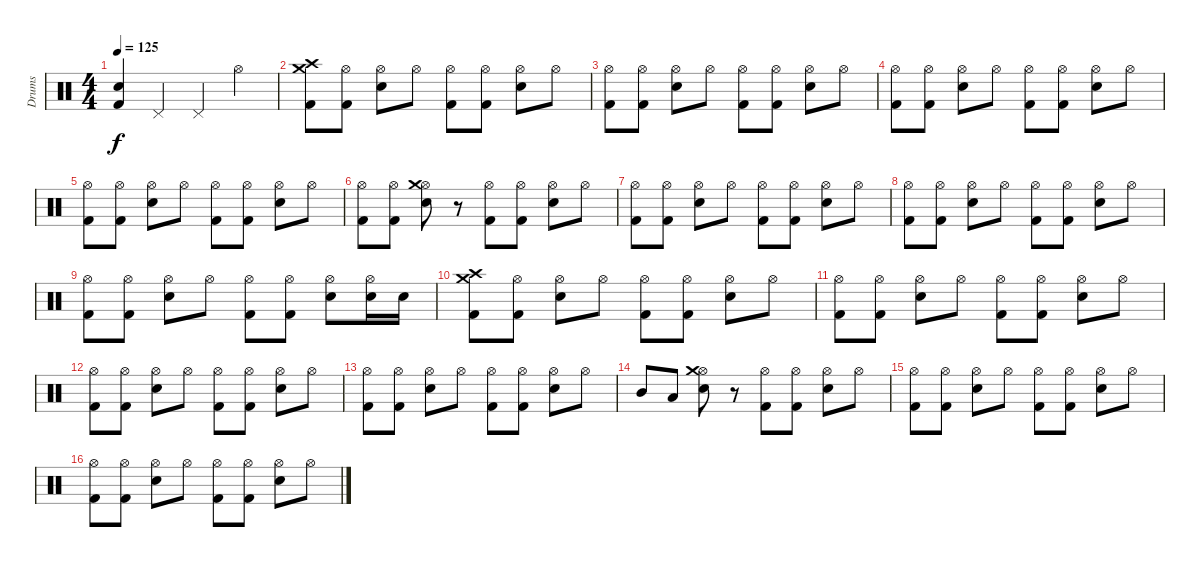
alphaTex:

\track ("Drums" "Drums") {instrument percussion}
\staff {score}
\articulation defaults
\ts (4 4)
\tempo 125
\clef neutral
\ks c
("Snare (hit) 2" "Kick (hit) 2").4{dy f} "Pedal Hi-Hat (hit)".4 "Pedal Hi-Hat (hit)".4 "Hi-Hat (open)".4 |
("Crash medium (hit)" "Crash high (hit)" "Kick (hit) 2").8 ("Hi-Hat (open)" "Kick (hit) 2").8 ("Hi-Hat (open)" "Snare (hit) 2").8 "Hi-Hat (open)".8 ("Hi-Hat (open)" "Kick (hit) 2").8 ("Hi-Hat (open)" "Kick (hit) 2").8 ("Hi-Hat (open)" "Snare (hit) 2").8 "Hi-Hat (open)".8 |
("Hi-Hat (open)" "Kick (hit) 2").8 ("Hi-Hat (open)" "Kick (hit) 2").8 ("Hi-Hat (open)" "Snare (hit) 2").8 "Hi-Hat (open)".8 ("Hi-Hat (open)" "Kick (hit) 2").8 ("Hi-Hat (open)" "Kick (hit) 2").8 ("Hi-Hat (open)" "Snare (hit) 2").8 "Hi-Hat (open)".8 |
("Hi-Hat (open)" "Kick (hit) 2").8 ("Hi-Hat (open)" "Kick (hit) 2").8 ("Hi-Hat (open)" "Snare (hit) 2").8 "Hi-Hat (open)".8 ("Hi-Hat (open)" "Kick (hit) 2").8 ("Hi-Hat (open)" "Kick (hit) 2").8 ("Hi-Hat (open)" "Snare (hit) 2").8 "Hi-Hat (open)".8 |
("Hi-Hat (open)" "Kick (hit) 2").8 ("Hi-Hat (open)" "Kick (hit) 2").8 ("Hi-Hat (open)" "Snare (hit) 2").8 "Hi-Hat (open)".8 ("Hi-Hat (open)" "Kick (hit) 2").8 ("Hi-Hat (open)" "Kick (hit) 2").8 ("Hi-Hat (open)" "Snare (hit) 2").8 "Hi-Hat (open)".8 |
("Hi-Hat (open)" "Kick (hit) 2").8 ("Hi-Hat (open)" "Kick (hit) 2").8 ("Hi-Hat (open)" "Crash medium (hit)" "Snare (hit) 2").8 r.8 ("Hi-Hat (open)" "Kick (hit) 2").8 ("Hi-Hat (open)" "Kick (hit) 2").8 ("Hi-Hat (open)" "Snare (hit) 2").8 "Hi-Hat (open)".8 |
("Hi-Hat (open)" "Kick (hit) 2").8 ("Hi-Hat (open)" "Kick (hit) 2").8 ("Hi-Hat (open)" "Snare (hit) 2").8 "Hi-Hat (open)".8 ("Hi-Hat (open)" "Kick (hit) 2").8 ("Hi-Hat (open)" "Kick (hit) 2").8 ("Hi-Hat (open)" "Snare (hit) 2").8 "Hi-Hat (open)".8 |
("Hi-Hat (open)" "Kick (hit) 2").8 ("Hi-Hat (open)" "Kick (hit) 2").8 ("Hi-Hat (open)" "Snare (hit) 2").8 "Hi-Hat (open)".8 ("Hi-Hat (open)" "Kick (hit) 2").8 ("Hi-Hat (open)" "Kick (hit) 2").8 ("Hi-Hat (open)" "Snare (hit) 2").8 "Hi-Hat (open)".8 |
("Hi-Hat (open)" "Kick (hit) 2").8 ("Hi-Hat (open)" "Kick (hit) 2").8 ("Hi-Hat (open)" "Snare (hit) 2").8 "Hi-Hat (open)".8 ("Hi-Hat (open)" "Kick (hit) 2").8 ("Hi-Hat (open)" "Kick (hit) 2").8 ("Hi-Hat (open)" "Snare (hit) 2").8 ("Hi-Hat (open)" "Snare (hit) 2").16 "Snare (hit) 2".16 |
("Crash medium (hit)" "Crash high (hit)" "Kick (hit) 2").8 ("Hi-Hat (open)" "Kick (hit) 2").8 ("Hi-Hat (open)" "Snare (hit) 2").8 "Hi-Hat (open)".8 ("Hi-Hat (open)" "Kick (hit) 2").8 ("Hi-Hat (open)" "Kick (hit) 2").8 ("Hi-Hat (open)" "Snare (hit) 2").8 "Hi-Hat (open)".8 |
("Hi-Hat (open)" "Kick (hit) 2").8 ("Hi-Hat (open)" "Kick (hit) 2").8 ("Hi-Hat (open)" "Snare (hit) 2").8 "Hi-Hat (open)".8 ("Hi-Hat (open)" "Kick (hit) 2").8 ("Hi-Hat (open)" "Kick (hit) 2").8 ("Hi-Hat (open)" "Snare (hit) 2").8 "Hi-Hat (open)".8 |
("Hi-Hat (open)" "Kick (hit) 2").8 ("Hi-Hat (open)" "Kick (hit) 2").8 ("Hi-Hat (open)" "Snare (hit) 2").8 "Hi-Hat (open)".8 ("Hi-Hat (open)" "Kick (hit) 2").8 ("Hi-Hat (open)" "Kick (hit) 2").8 ("Hi-Hat (open)" "Snare (hit) 2").8 "Hi-Hat (open)".8 |
("Hi-Hat (open)" "Kick (hit) 2").8 ("Hi-Hat (open)" "Kick (hit) 2").8 ("Hi-Hat (open)" "Snare (hit) 2").8 "Hi-Hat (open)".8 ("Hi-Hat (open)" "Kick (hit) 2").8 ("Hi-Hat (open)" "Kick (hit) 2").8 ("Hi-Hat (open)" "Snare (hit) 2").8 "Hi-Hat (open)".8 |
"Mid Tom (hit)".8 "Low Tom (hit)".8 ("Hi-Hat (open)" "Crash medium (hit)" "Snare (hit) 2").8 r.8 ("Hi-Hat (open)" "Kick (hit) 2").8 ("Hi-Hat (open)" "Kick (hit) 2").8 ("Hi-Hat (open)" "Snare (hit) 2").8 "Hi-Hat (open)".8 |
("Hi-Hat (open)" "Kick (hit) 2").8 ("Hi-Hat (open)" "Kick (hit) 2").8 ("Hi-Hat (open)" "Snare (hit) 2").8 "Hi-Hat (open)".8 ("Hi-Hat (open)" "Kick (hit) 2").8 ("Hi-Hat (open)" "Kick (hit) 2").8 ("Hi-Hat (open)" "Snare (hit) 2").8 "Hi-Hat (open)".8 |
("Hi-Hat (open)" "Kick (hit) 2").8 ("Hi-Hat (open)" "Kick (hit) 2").8 ("Hi-Hat (open)" "Snare (hit) 2").8 "Hi-Hat (open)".8 ("Hi-Hat (open)" "Kick (hit) 2").8 ("Hi-Hat (open)" "Kick (hit) 2").8 ("Hi-Hat (open)" "Snare (hit) 2").8 "Hi-Hat (open)".8
